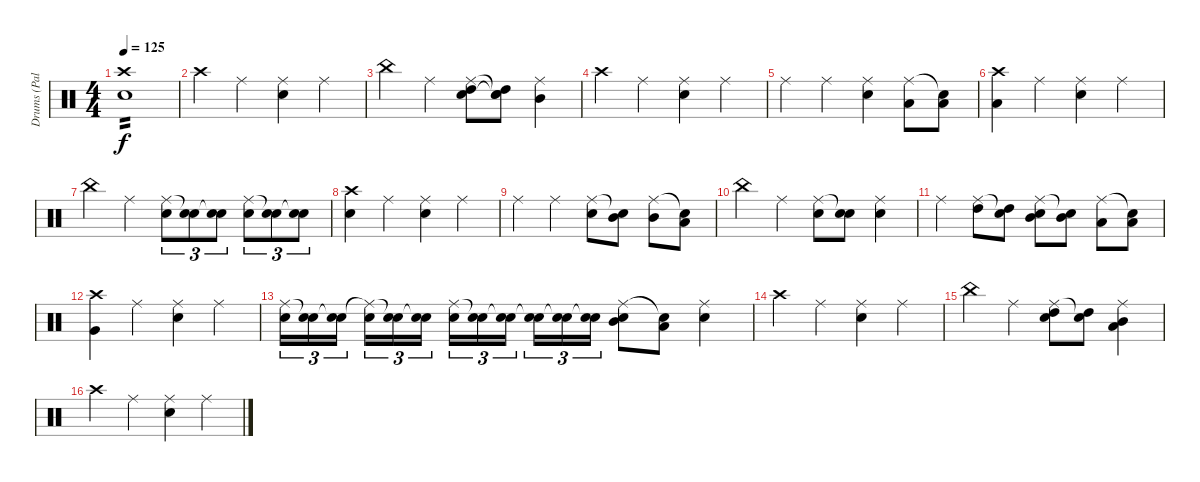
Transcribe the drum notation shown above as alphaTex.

\track ("Drums (Palmer)" "Drums (Pal") {instrument percussion}
\staff {score}
\articulation defaults
\ts (4 4)
\tempo 125
\clef neutral
\ks c
("Crash high (hit)" "Snare (hit) 2").1{tp 2 dy f} |
"Crash high (hit)".4 "Ride (middle)".4 ("Ride (middle)" "Snare (hit) 2").4 "Ride (middle)".4 |
"China (hit)".4 "Ride (middle)".4 ("Ride (middle)" "Snare (hit) 2" "High Tom (hit)").8 ("Snare (hit)"{t} "Snare (hit)"{t} "High Tom (hit)").8 ("Ride (middle)" "Mid Tom (hit)").4 |
"Crash high (hit)".4 "Ride (middle)".4 ("Ride (middle)" "Snare (hit) 2").4 "Ride (middle)".4 |
"Ride (middle)".4 "Ride (middle)".4 ("Ride (middle)" "Snare (hit) 2").4 ("Ride (middle)" "Low Tom (hit)").8 ("Snare (hit)"{t} "Low Tom (hit)").8 |
("Crash high (hit)" "Low Tom (hit)").4 "Ride (middle)".4 ("Ride (middle)" "Snare (hit) 2").4 "Ride (middle)".4 |
"China (hit)".4 "Ride (middle)".4 ("Ride (middle)" "Snare (hit) 2").8{tu (3 2)} ("Snare (hit)"{t} "Snare (hit) 2").8{tu (3 2)} ("Snare (hit)"{t} "Snare (hit) 2").8{tu (3 2)} ("Ride (middle)" "Snare (hit) 2").8{tu (3 2)} ("Snare (hit)"{t} "Snare (hit) 2").8{tu (3 2)} ("Snare (hit)"{t} "Snare (hit) 2").8{tu (3 2)} |
("Crash high (hit)" "Snare (hit) 2").4 "Ride (middle)".4 ("Ride (middle)" "Snare (hit) 2").4 "Ride (middle)".4 |
"Ride (middle)".4 "Ride (middle)".4 ("Ride (middle)" "Snare (hit) 2").8 ("Snare (hit)"{t} "Mid Tom (hit)").8 ("Ride (middle)" "Mid Tom (hit)").8 ("Snare (hit)"{t} "Low Floor Tom (hit)").8 |
"China (hit)".4 "Ride (middle)".4 ("Ride (middle)" "Snare (hit) 2").8 ("Snare (hit)"{t} "Snare (hit) 2").8 ("Ride (middle)" "Snare (hit) 2").4 |
"Ride (middle)".4 ("Ride (middle)" "High Tom (hit)").8 ("Snare (hit)"{t} "High Tom (hit)").8 ("Ride (middle)" "Snare (hit) 2" "Mid Tom (hit)").8 ("Snare (hit)"{t} "Mid Tom (hit)").8 ("Ride (middle)" "Low Tom (hit)").8 ("Snare (hit)"{t} "Low Tom (hit)").8 |
("Crash high (hit)" "Very Low Tom (hit)").4 "Ride (middle)".4 ("Ride (middle)" "Snare (hit) 2").4 "Ride (middle)".4 |
("Ride (middle)" "Snare (hit) 2").16{tu (3 2)} ("Snare (hit)"{t} "Snare (hit) 2").16{tu (3 2)} ("Snare (hit)"{t} "Snare (hit) 2").16{tu (3 2)} ("Ride (middle)"{t} "Snare (hit) 2").16{tu (3 2)} ("Snare (hit)"{t} "Snare (hit) 2").16{tu (3 2)} ("Snare (hit)"{t} "Snare (hit) 2").16{tu (3 2)} ("Ride (middle)" "Snare (hit) 2").16{tu (3 2)} ("Snare (hit)"{t} "Snare (hit) 2").16{tu (3 2)} ("Snare (hit)"{t} "Snare (hit) 2").16{tu (3 2)} ("Snare (hit)"{t} "Snare (hit) 2").16{tu (3 2)} ("Snare (hit)"{t} "Snare (hit) 2").16{tu (3 2)} ("Snare (hit)"{t} "Snare (hit) 2").16{tu (3 2)} ("Ride (middle)" "Snare (hit) 2" "Mid Tom (hit)").8 ("Snare (hit)"{t} "Low Tom (hit)").8 ("Ride (middle)" "Snare (hit) 2").4 |
"Crash high (hit)".4 "Ride (middle)".4 ("Ride (middle)" "Snare (hit) 2").4 "Ride (middle)".4 |
"China (hit)".4 "Ride (middle)".4 ("Ride (middle)" "Snare (hit) 2" "High Tom (hit)").8 ("Snare (hit)"{t} "High Tom (hit)").8 ("Ride (middle)" "Mid Tom (hit)" "Low Tom (hit)").4 |
"Crash high (hit)".4 "Ride (middle)".4 ("Ride (middle)" "Snare (hit) 2").4 "Ride (middle)".4
